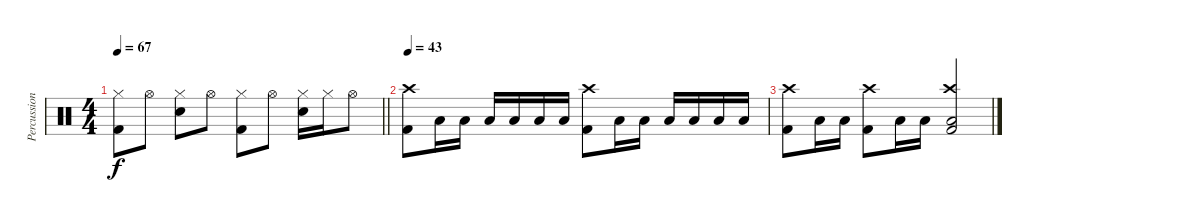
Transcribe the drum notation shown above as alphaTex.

\track ("Percussion" "Percussion") {instrument percussion}
\staff {score}
\articulation defaults
\ts (4 4)
\tempo 67
\clef neutral
\barLineRight lightlight
\ks c
("Hi-Hat (closed)" "Kick (hit) 2").8{dy f} "Hi-Hat (open)".8 ("Hi-Hat (closed)" "Snare (hit) 2").8 "Hi-Hat (open)".8 ("Hi-Hat (closed)" "Kick (hit) 2").8 "Hi-Hat (open)".8 ("Hi-Hat (closed)" "Snare (hit) 2").16 "Hi-Hat (closed)".16 "Hi-Hat (open)".8 |
\tempo 43
("Crash high (hit)" "Kick (hit) 2").8 "Low Floor Tom (hit)".16 "Low Floor Tom (hit)".16 "Low Floor Tom (hit)".16 "Low Floor Tom (hit)".16 "Low Floor Tom (hit)".16 "Low Floor Tom (hit)".16 ("Crash high (hit)" "Kick (hit) 2").8 "Low Floor Tom (hit)".16 "Low Floor Tom (hit)".16 "Low Floor Tom (hit)".16 "Low Floor Tom (hit)".16 "Low Floor Tom (hit)".16 "Low Floor Tom (hit)".16 |
("Crash high (hit)" "Kick (hit) 2").8 "Low Floor Tom (hit)".16 "Low Floor Tom (hit)".16 ("Crash high (hit)" "Kick (hit) 2").8 "Low Floor Tom (hit)".16 "Low Floor Tom (hit)".16 ("Crash high (hit)" "Kick (hit) 2" "Low Floor Tom (hit)").2
